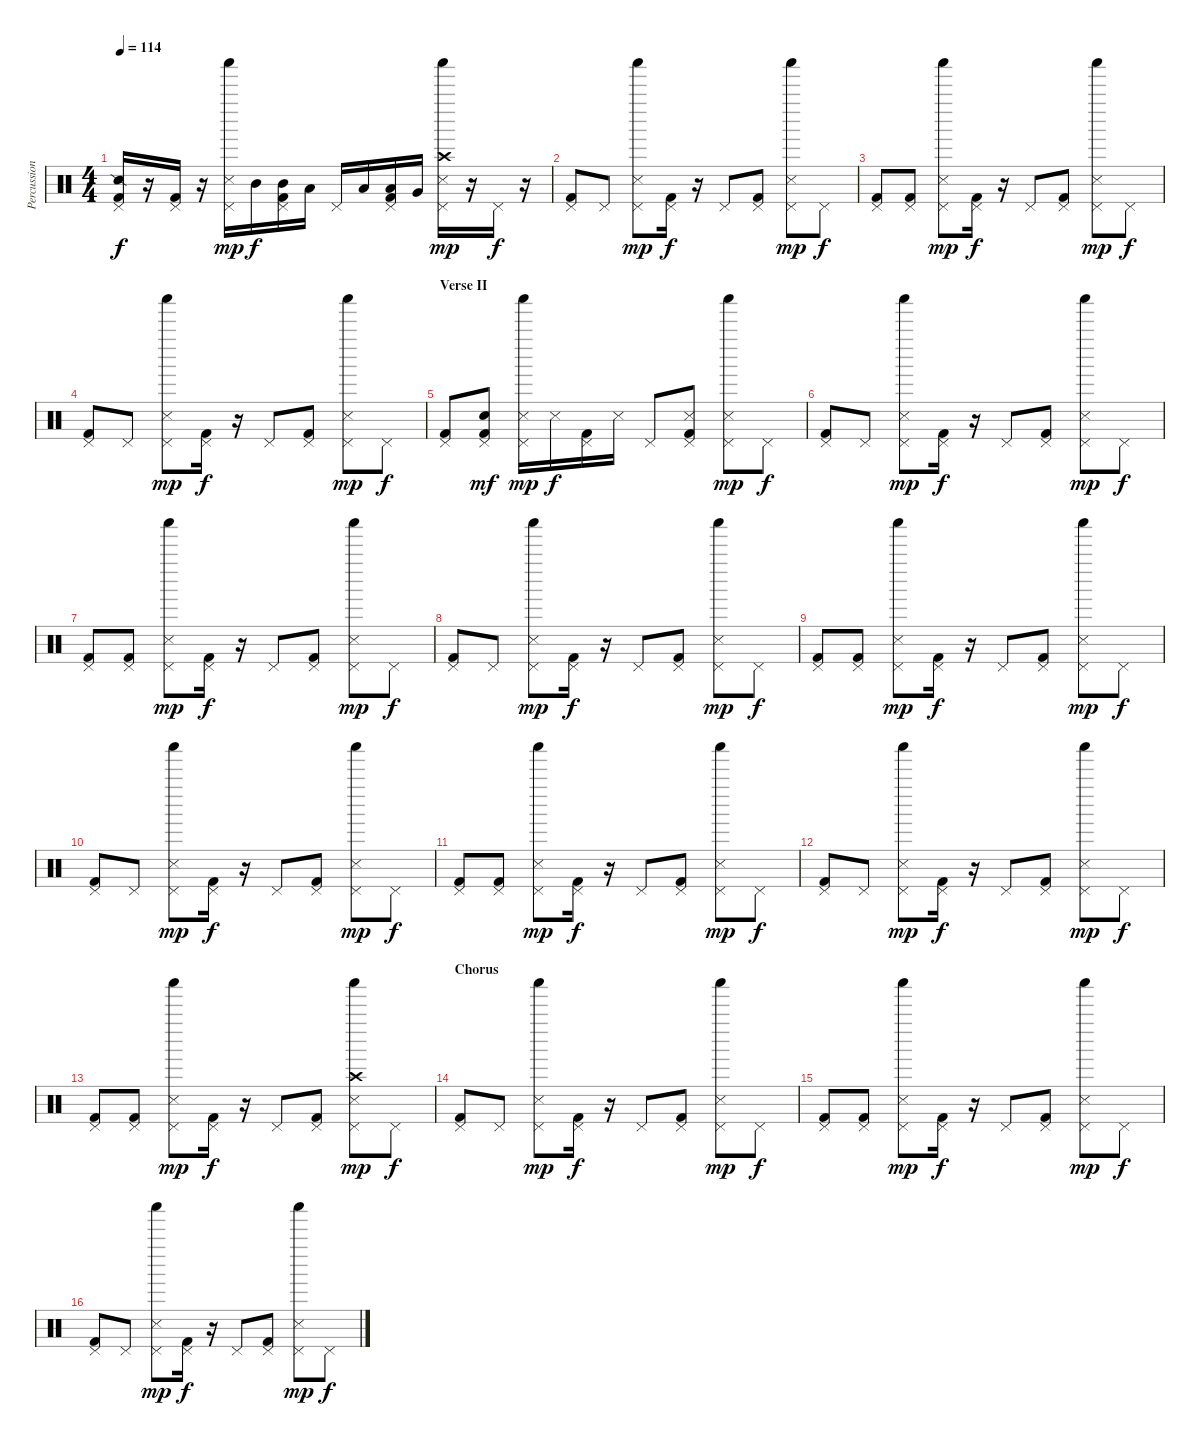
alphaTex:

\track ("Percussion" "Percussion") {instrument percussion}
\staff {score}
\articulation defaults
\ts (4 4)
\tempo 114
\clef neutral
\ks c
("Pedal Hi-Hat (hit)" "Snare (side stick) 2" "Kick (hit) 2").16{dy f} r.16 ("Pedal Hi-Hat (hit)" "Kick (hit) 2").16 r.16 ("Pedal Hi-Hat (hit)" "Snare (side stick) 3" "Shaker (hit)").16{dy mp} "Mid Tom (hit)".16{dy f} ("Pedal Hi-Hat (hit)" "Mid Tom (hit)" "Kick (hit) 2").16 "Low Tom (hit)".16 "Pedal Hi-Hat (hit)".16 "Low Tom (hit)".16 ("Pedal Hi-Hat (hit)" "Low Tom (hit)" "Kick (hit) 2").16 "Very Low Tom (hit)".16 ("Pedal Hi-Hat (hit)" "Crash high (hit)" "Snare (side stick) 3" "Shaker (hit)").16{dy mp} r.16 "Pedal Hi-Hat (hit)".16{dy f} r.16 |
("Pedal Hi-Hat (hit)" "Kick (hit) 2").8 "Pedal Hi-Hat (hit)".8 ("Pedal Hi-Hat (hit)" "Snare (side stick) 3" "Shaker (hit)").8{dy mp} ("Pedal Hi-Hat (hit)" "Kick (hit) 2").16{dy f} r.16 "Pedal Hi-Hat (hit)".8 ("Pedal Hi-Hat (hit)" "Kick (hit) 2").8 ("Pedal Hi-Hat (hit)" "Snare (side stick) 3" "Shaker (hit)").8{dy mp} "Pedal Hi-Hat (hit)".8{dy f} |
("Pedal Hi-Hat (hit)" "Kick (hit) 2").8 ("Pedal Hi-Hat (hit)" "Kick (hit) 2").8 ("Pedal Hi-Hat (hit)" "Snare (side stick) 3" "Shaker (hit)").8{dy mp} ("Pedal Hi-Hat (hit)" "Kick (hit) 2").16{dy f} r.16 "Pedal Hi-Hat (hit)".8 ("Pedal Hi-Hat (hit)" "Kick (hit) 2").8 ("Pedal Hi-Hat (hit)" "Snare (side stick) 3" "Shaker (hit)").8{dy mp} "Pedal Hi-Hat (hit)".8{dy f} |
("Pedal Hi-Hat (hit)" "Kick (hit) 2").8 "Pedal Hi-Hat (hit)".8 ("Pedal Hi-Hat (hit)" "Snare (side stick) 3" "Shaker (hit)").8{dy mp} ("Pedal Hi-Hat (hit)" "Kick (hit) 2").16{dy f} r.16 "Pedal Hi-Hat (hit)".8 ("Pedal Hi-Hat (hit)" "Kick (hit) 2").8 ("Pedal Hi-Hat (hit)" "Snare (side stick) 3" "Shaker (hit)").8{dy mp} "Pedal Hi-Hat (hit)".8{dy f} |
\section ("" "Verse II")
("Pedal Hi-Hat (hit)" "Kick (hit) 2").8 ("Pedal Hi-Hat (hit)" "Snare (hit)" "Kick (hit) 2").8{dy mf} ("Pedal Hi-Hat (hit)" "Snare (side stick) 3" "Shaker (hit)").16{dy mp} "Metronome (hit)".16{dy f} ("Pedal Hi-Hat (hit)" "Kick (hit) 2").16 "Metronome (hit)".16 "Pedal Hi-Hat (hit)".8 ("Pedal Hi-Hat (hit)" "Metronome (hit)" "Kick (hit) 2").8 ("Pedal Hi-Hat (hit)" "Snare (side stick) 3" "Shaker (hit)").8{dy mp} "Pedal Hi-Hat (hit)".8{dy f} |
("Pedal Hi-Hat (hit)" "Kick (hit) 2").8 "Pedal Hi-Hat (hit)".8 ("Pedal Hi-Hat (hit)" "Snare (side stick) 3" "Shaker (hit)").8{dy mp} ("Pedal Hi-Hat (hit)" "Kick (hit) 2").16{dy f} r.16 "Pedal Hi-Hat (hit)".8 ("Pedal Hi-Hat (hit)" "Kick (hit) 2").8 ("Pedal Hi-Hat (hit)" "Snare (side stick) 3" "Shaker (hit)").8{dy mp} "Pedal Hi-Hat (hit)".8{dy f} |
("Pedal Hi-Hat (hit)" "Kick (hit) 2").8 ("Pedal Hi-Hat (hit)" "Kick (hit) 2").8 ("Pedal Hi-Hat (hit)" "Snare (side stick) 3" "Shaker (hit)").8{dy mp} ("Pedal Hi-Hat (hit)" "Kick (hit) 2").16{dy f} r.16 "Pedal Hi-Hat (hit)".8 ("Pedal Hi-Hat (hit)" "Kick (hit) 2").8 ("Pedal Hi-Hat (hit)" "Snare (side stick) 3" "Shaker (hit)").8{dy mp} "Pedal Hi-Hat (hit)".8{dy f} |
("Pedal Hi-Hat (hit)" "Kick (hit) 2").8 "Pedal Hi-Hat (hit)".8 ("Pedal Hi-Hat (hit)" "Snare (side stick) 3" "Shaker (hit)").8{dy mp} ("Pedal Hi-Hat (hit)" "Kick (hit) 2").16{dy f} r.16 "Pedal Hi-Hat (hit)".8 ("Pedal Hi-Hat (hit)" "Kick (hit) 2").8 ("Pedal Hi-Hat (hit)" "Snare (side stick) 3" "Shaker (hit)").8{dy mp} "Pedal Hi-Hat (hit)".8{dy f} |
("Pedal Hi-Hat (hit)" "Kick (hit) 2").8 ("Pedal Hi-Hat (hit)" "Kick (hit) 2").8 ("Pedal Hi-Hat (hit)" "Snare (side stick) 3" "Shaker (hit)").8{dy mp} ("Pedal Hi-Hat (hit)" "Kick (hit) 2").16{dy f} r.16 "Pedal Hi-Hat (hit)".8 ("Pedal Hi-Hat (hit)" "Kick (hit) 2").8 ("Pedal Hi-Hat (hit)" "Snare (side stick) 3" "Shaker (hit)").8{dy mp} "Pedal Hi-Hat (hit)".8{dy f} |
("Pedal Hi-Hat (hit)" "Kick (hit) 2").8 "Pedal Hi-Hat (hit)".8 ("Pedal Hi-Hat (hit)" "Snare (side stick) 3" "Shaker (hit)").8{dy mp} ("Pedal Hi-Hat (hit)" "Kick (hit) 2").16{dy f} r.16 "Pedal Hi-Hat (hit)".8 ("Pedal Hi-Hat (hit)" "Kick (hit) 2").8 ("Pedal Hi-Hat (hit)" "Snare (side stick) 3" "Shaker (hit)").8{dy mp} "Pedal Hi-Hat (hit)".8{dy f} |
("Pedal Hi-Hat (hit)" "Kick (hit) 2").8 ("Pedal Hi-Hat (hit)" "Kick (hit) 2").8 ("Pedal Hi-Hat (hit)" "Snare (side stick) 3" "Shaker (hit)").8{dy mp} ("Pedal Hi-Hat (hit)" "Kick (hit) 2").16{dy f} r.16 "Pedal Hi-Hat (hit)".8 ("Pedal Hi-Hat (hit)" "Kick (hit) 2").8 ("Pedal Hi-Hat (hit)" "Snare (side stick) 3" "Shaker (hit)").8{dy mp} "Pedal Hi-Hat (hit)".8{dy f} |
("Pedal Hi-Hat (hit)" "Kick (hit) 2").8 "Pedal Hi-Hat (hit)".8 ("Pedal Hi-Hat (hit)" "Snare (side stick) 3" "Shaker (hit)").8{dy mp} ("Pedal Hi-Hat (hit)" "Kick (hit) 2").16{dy f} r.16 "Pedal Hi-Hat (hit)".8 ("Pedal Hi-Hat (hit)" "Kick (hit) 2").8 ("Pedal Hi-Hat (hit)" "Snare (side stick) 3" "Shaker (hit)").8{dy mp} "Pedal Hi-Hat (hit)".8{dy f} |
("Pedal Hi-Hat (hit)" "Kick (hit) 2").8 ("Pedal Hi-Hat (hit)" "Kick (hit) 2").8 ("Pedal Hi-Hat (hit)" "Snare (side stick) 3" "Shaker (hit)").8{dy mp} ("Pedal Hi-Hat (hit)" "Kick (hit) 2").16{dy f} r.16 "Pedal Hi-Hat (hit)".8 ("Pedal Hi-Hat (hit)" "Kick (hit) 2").8 ("Pedal Hi-Hat (hit)" "Crash high (hit)" "Snare (side stick) 3" "Shaker (hit)").8{dy mp} "Pedal Hi-Hat (hit)".8{dy f} |
\section ("" "Chorus")
("Pedal Hi-Hat (hit)" "Kick (hit) 2").8 "Pedal Hi-Hat (hit)".8 ("Pedal Hi-Hat (hit)" "Snare (side stick) 3" "Shaker (hit)").8{dy mp} ("Pedal Hi-Hat (hit)" "Kick (hit) 2").16{dy f} r.16 "Pedal Hi-Hat (hit)".8 ("Pedal Hi-Hat (hit)" "Kick (hit) 2").8 ("Pedal Hi-Hat (hit)" "Snare (side stick) 3" "Shaker (hit)").8{dy mp} "Pedal Hi-Hat (hit)".8{dy f} |
("Pedal Hi-Hat (hit)" "Kick (hit) 2").8 ("Pedal Hi-Hat (hit)" "Kick (hit) 2").8 ("Pedal Hi-Hat (hit)" "Snare (side stick) 3" "Shaker (hit)").8{dy mp} ("Pedal Hi-Hat (hit)" "Kick (hit) 2").16{dy f} r.16 "Pedal Hi-Hat (hit)".8 ("Pedal Hi-Hat (hit)" "Kick (hit) 2").8 ("Pedal Hi-Hat (hit)" "Snare (side stick) 3" "Shaker (hit)").8{dy mp} "Pedal Hi-Hat (hit)".8{dy f} |
("Pedal Hi-Hat (hit)" "Kick (hit) 2").8 "Pedal Hi-Hat (hit)".8 ("Pedal Hi-Hat (hit)" "Snare (side stick) 3" "Shaker (hit)").8{dy mp} ("Pedal Hi-Hat (hit)" "Kick (hit) 2").16{dy f} r.16 "Pedal Hi-Hat (hit)".8 ("Pedal Hi-Hat (hit)" "Kick (hit) 2").8 ("Pedal Hi-Hat (hit)" "Snare (side stick) 3" "Shaker (hit)").8{dy mp} "Pedal Hi-Hat (hit)".8{dy f}
